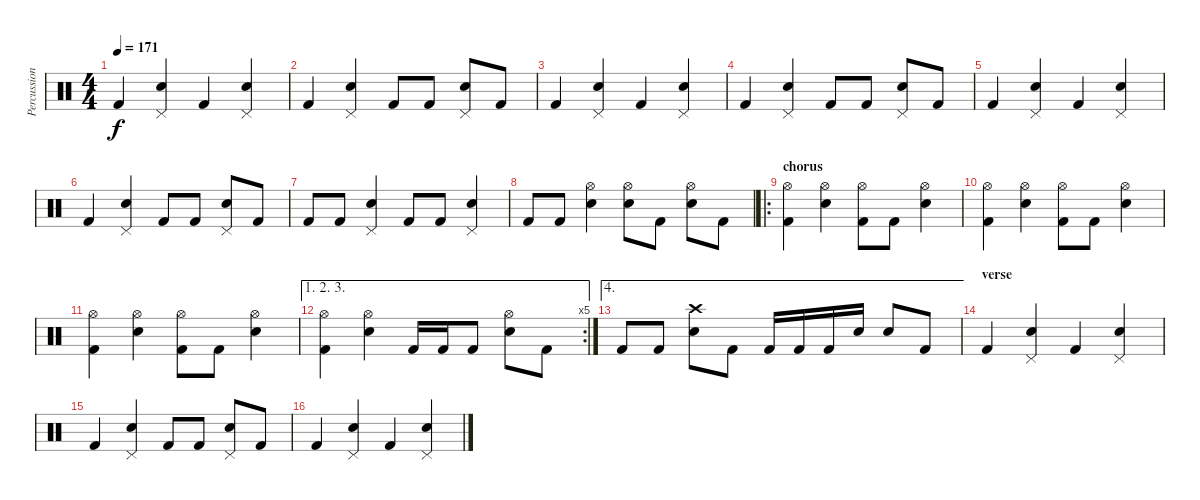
\track ("Percussion" "Percussion") {instrument percussion}
\staff {score}
\articulation defaults
\ts (4 4)
\tempo 171
\clef neutral
\ks c "Kick (hit) 2".4{dy f}
("Pedal Hi-Hat (hit)" "Electric Snare (hit)").4 "Kick (hit) 2".4 ("Pedal Hi-Hat (hit)" "Electric Snare (hit)").4 |
"Kick (hit) 2".4 ("Pedal Hi-Hat (hit)" "Electric Snare (hit)").4 "Kick (hit) 2".8 "Kick (hit) 2".8 ("Pedal Hi-Hat (hit)" "Electric Snare (hit)").8 "Kick (hit) 2".8 |
"Kick (hit) 2".4 ("Pedal Hi-Hat (hit)" "Electric Snare (hit)").4 "Kick (hit) 2".4 ("Pedal Hi-Hat (hit)" "Electric Snare (hit)").4 |
"Kick (hit) 2".4 ("Pedal Hi-Hat (hit)" "Electric Snare (hit)").4 "Kick (hit) 2".8 "Kick (hit) 2".8 ("Pedal Hi-Hat (hit)" "Electric Snare (hit)").8 "Kick (hit) 2".8 |
"Kick (hit) 2".4 ("Pedal Hi-Hat (hit)" "Electric Snare (hit)").4 "Kick (hit) 2".4 ("Pedal Hi-Hat (hit)" "Electric Snare (hit)").4 |
"Kick (hit) 2".4 ("Pedal Hi-Hat (hit)" "Electric Snare (hit)").4 "Kick (hit) 2".8 "Kick (hit) 2".8 ("Pedal Hi-Hat (hit)" "Electric Snare (hit)").8 "Kick (hit) 2".8 |
"Kick (hit) 2".8 "Kick (hit) 2".8 ("Pedal Hi-Hat (hit)" "Electric Snare (hit)").4 "Kick (hit) 2".8 "Kick (hit) 2".8 ("Pedal Hi-Hat (hit)" "Electric Snare (hit)").4 |
"Kick (hit) 2".8 "Kick (hit) 2".8 ("Hi-Hat (open)" "Electric Snare (hit)").4 ("Hi-Hat (open)" "Electric Snare (hit)").8 "Kick (hit) 2".8 ("Hi-Hat (open)" "Electric Snare (hit)").8 "Kick (hit) 2".8 |
\ro
\section ("" "chorus")
("Hi-Hat (open)" "Kick (hit) 2").4 ("Hi-Hat (open)" "Electric Snare (hit)").4 ("Hi-Hat (open)" "Kick (hit) 2").8 "Kick (hit) 2".8 ("Hi-Hat (open)" "Electric Snare (hit)").4 |
("Hi-Hat (open)" "Kick (hit) 2").4 ("Hi-Hat (open)" "Electric Snare (hit)").4 ("Hi-Hat (open)" "Kick (hit) 2").8 "Kick (hit) 2".8 ("Hi-Hat (open)" "Electric Snare (hit)").4 |
("Hi-Hat (open)" "Kick (hit) 2").4 ("Hi-Hat (open)" "Electric Snare (hit)").4 ("Hi-Hat (open)" "Kick (hit) 2").8 "Kick (hit) 2".8 ("Hi-Hat (open)" "Electric Snare (hit)").4 |
\ae (1 2 3)
\rc 5
("Hi-Hat (open)" "Kick (hit) 2").4 ("Hi-Hat (open)" "Electric Snare (hit)").4 "Kick (hit) 2".16 "Kick (hit) 2".16 "Kick (hit) 2".8 ("Hi-Hat (open)" "Electric Snare (hit)").8 "Kick (hit) 2".8 |
\ae 4 "Kick (hit) 2".8 "Kick (hit) 2".8
("Crash high (hit)" "Electric Snare (hit)").8 "Kick (hit) 2".8 "Kick (hit) 2".16 "Kick (hit) 2".16 "Kick (hit) 2".16 "Electric Snare (hit)".16 "Electric Snare (hit)".8 "Kick (hit) 2".8 |
\section ("" "verse")
"Kick (hit) 2".4 ("Pedal Hi-Hat (hit)" "Electric Snare (hit)").4 "Kick (hit) 2".4 ("Pedal Hi-Hat (hit)" "Electric Snare (hit)").4 |
"Kick (hit) 2".4 ("Pedal Hi-Hat (hit)" "Electric Snare (hit)").4 "Kick (hit) 2".8 "Kick (hit) 2".8 ("Pedal Hi-Hat (hit)" "Electric Snare (hit)").8 "Kick (hit) 2".8 |
"Kick (hit) 2".4 ("Pedal Hi-Hat (hit)" "Electric Snare (hit)").4 "Kick (hit) 2".4 ("Pedal Hi-Hat (hit)" "Electric Snare (hit)").4
